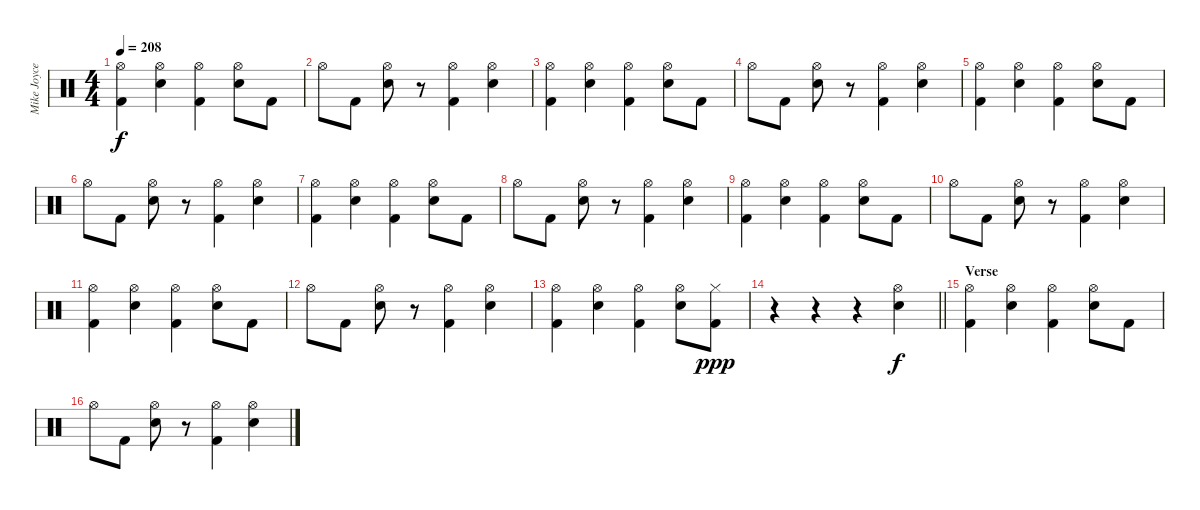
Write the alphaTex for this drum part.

\track ("Mike Joyce" "Mike Joyce") {instrument percussion}
\staff {score}
\articulation defaults
\ts (4 4)
\tempo 208
\clef neutral
\ks c
("Hi-Hat (open)" "Kick (hit) 2").4{dy f} ("Hi-Hat (open)" "Snare (hit) 2").4 ("Hi-Hat (open)" "Kick (hit) 2").4 ("Hi-Hat (open)" "Snare (hit) 2").8 "Kick (hit) 2".8 |
"Hi-Hat (open)".8 "Kick (hit) 2".8 ("Hi-Hat (open)" "Snare (hit) 2").8 r.8 ("Hi-Hat (open)" "Kick (hit) 2").4 ("Hi-Hat (open)" "Snare (hit) 2").4 |
("Hi-Hat (open)" "Kick (hit) 2").4 ("Hi-Hat (open)" "Snare (hit) 2").4 ("Hi-Hat (open)" "Kick (hit) 2").4 ("Hi-Hat (open)" "Snare (hit) 2").8 "Kick (hit) 2".8 |
"Hi-Hat (open)".8 "Kick (hit) 2".8 ("Hi-Hat (open)" "Snare (hit) 2").8 r.8 ("Hi-Hat (open)" "Kick (hit) 2").4 ("Hi-Hat (open)" "Snare (hit) 2").4 |
("Hi-Hat (open)" "Kick (hit) 2").4 ("Hi-Hat (open)" "Snare (hit) 2").4 ("Hi-Hat (open)" "Kick (hit) 2").4 ("Hi-Hat (open)" "Snare (hit) 2").8 "Kick (hit) 2".8 |
"Hi-Hat (open)".8 "Kick (hit) 2".8 ("Hi-Hat (open)" "Snare (hit) 2").8 r.8 ("Hi-Hat (open)" "Kick (hit) 2").4 ("Hi-Hat (open)" "Snare (hit) 2").4 |
("Hi-Hat (open)" "Kick (hit) 2").4 ("Hi-Hat (open)" "Snare (hit) 2").4 ("Hi-Hat (open)" "Kick (hit) 2").4 ("Hi-Hat (open)" "Snare (hit) 2").8 "Kick (hit) 2".8 |
"Hi-Hat (open)".8 "Kick (hit) 2".8 ("Hi-Hat (open)" "Snare (hit) 2").8 r.8 ("Hi-Hat (open)" "Kick (hit) 2").4 ("Hi-Hat (open)" "Snare (hit) 2").4 |
("Hi-Hat (open)" "Kick (hit) 2").4 ("Hi-Hat (open)" "Snare (hit) 2").4 ("Hi-Hat (open)" "Kick (hit) 2").4 ("Hi-Hat (open)" "Snare (hit) 2").8 "Kick (hit) 2".8 |
"Hi-Hat (open)".8 "Kick (hit) 2".8 ("Hi-Hat (open)" "Snare (hit) 2").8 r.8 ("Hi-Hat (open)" "Kick (hit) 2").4 ("Hi-Hat (open)" "Snare (hit) 2").4 |
("Hi-Hat (open)" "Kick (hit) 2").4 ("Hi-Hat (open)" "Snare (hit) 2").4 ("Hi-Hat (open)" "Kick (hit) 2").4 ("Hi-Hat (open)" "Snare (hit) 2").8 "Kick (hit) 2".8 |
"Hi-Hat (open)".8 "Kick (hit) 2".8 ("Hi-Hat (open)" "Snare (hit) 2").8 r.8 ("Hi-Hat (open)" "Kick (hit) 2").4 ("Hi-Hat (open)" "Snare (hit) 2").4 |
("Hi-Hat (open)" "Kick (hit) 2").4 ("Hi-Hat (open)" "Snare (hit) 2").4 ("Hi-Hat (open)" "Kick (hit) 2").4 ("Hi-Hat (open)" "Snare (hit) 2").8 ("Hi-Hat (closed)" "Kick (hit) 2").8{dy ppp} |
\barLineRight lightlight
r.4 r.4 r.4 ("Snare (hit) 2" "Hi-Hat (open)").4{dy f} |
\section ("" "Verse")
("Hi-Hat (open)" "Kick (hit) 2").4 ("Hi-Hat (open)" "Snare (hit) 2").4 ("Hi-Hat (open)" "Kick (hit) 2").4 ("Hi-Hat (open)" "Snare (hit) 2").8 "Kick (hit) 2".8 |
"Hi-Hat (open)".8 "Kick (hit) 2".8 ("Hi-Hat (open)" "Snare (hit) 2").8 r.8 ("Hi-Hat (open)" "Kick (hit) 2").4 ("Hi-Hat (open)" "Snare (hit) 2").4
